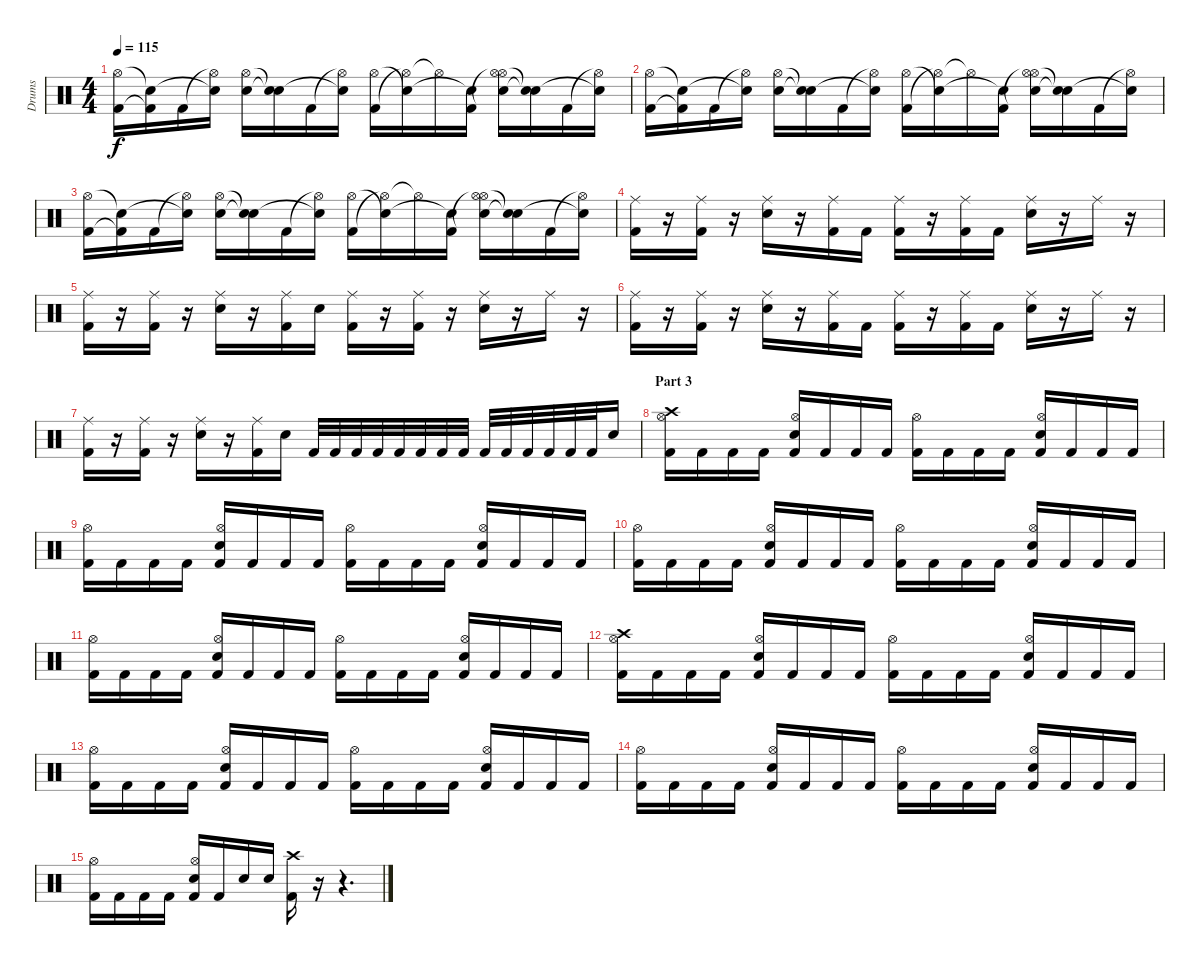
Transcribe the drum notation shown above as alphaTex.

\track ("Drums" "Drums") {instrument percussion}
\staff {score}
\articulation defaults
\ts (4 4)
\tempo 115
\clef neutral
\ks c
("Kick (hit) 2" "Hi-Hat (open)").16{dy f} ("Kick (hit) 2"{t} "Snare (hit)"{t}).16 "Kick (hit) 2".16 ("Hi-Hat (open)"{t} "Snare (hit)"{t}).16 ("Electric Snare (hit)" "Hi-Hat (open)").16 ("Snare (hit)"{t} "Snare (hit)"{t}).16 "Kick (hit) 2".16 ("Hi-Hat (open)"{t} "Snare (hit)"{t}).16 ("Kick (hit) 2" "Hi-Hat (open)").16 ("Hi-Hat (open)"{t} "Snare (hit)"{t}).16 "Hi-Hat (open)"{t}.16 ("Kick (hit) 2" "Snare (hit)"{t}).16 ("Hi-Hat (open)"{t} "Electric Snare (hit)" "Hi-Hat (open)").16 ("Electric Snare (hit)"{t} "Snare (hit)"{t}).16 "Kick (hit) 2".16 ("Hi-Hat (open)"{t} "Snare (hit)"{t}).16 |
("Kick (hit) 2" "Hi-Hat (open)").16 ("Kick (hit) 2"{t} "Snare (hit)"{t}).16 "Kick (hit) 2".16 ("Hi-Hat (open)"{t} "Snare (hit)"{t}).16 ("Electric Snare (hit)" "Hi-Hat (open)").16 ("Snare (hit)"{t} "Snare (hit)"{t}).16 "Kick (hit) 2".16 ("Hi-Hat (open)"{t} "Snare (hit)"{t}).16 ("Kick (hit) 2" "Hi-Hat (open)").16 ("Hi-Hat (open)"{t} "Snare (hit)"{t}).16 "Hi-Hat (open)"{t}.16 ("Kick (hit) 2" "Snare (hit)"{t}).16 ("Hi-Hat (open)"{t} "Electric Snare (hit)" "Hi-Hat (open)").16 ("Electric Snare (hit)"{t} "Snare (hit)"{t}).16 "Kick (hit) 2".16 ("Hi-Hat (open)"{t} "Snare (hit)"{t}).16 |
("Kick (hit) 2" "Hi-Hat (open)").16 ("Kick (hit) 2"{t} "Snare (hit)"{t}).16 "Kick (hit) 2".16 ("Hi-Hat (open)"{t} "Snare (hit)"{t}).16 ("Electric Snare (hit)" "Hi-Hat (open)").16 ("Snare (hit)"{t} "Snare (hit)"{t}).16 "Kick (hit) 2".16 ("Hi-Hat (open)"{t} "Snare (hit)"{t}).16 ("Kick (hit) 2" "Hi-Hat (open)").16 ("Hi-Hat (open)"{t} "Snare (hit)"{t}).16 "Hi-Hat (open)"{t}.16 ("Kick (hit) 2" "Snare (hit)"{t}).16 ("Hi-Hat (open)"{t} "Electric Snare (hit)" "Hi-Hat (open)").16 ("Electric Snare (hit)"{t} "Snare (hit)"{t}).16 "Kick (hit) 2".16 ("Hi-Hat (open)"{t} "Snare (hit)"{t}).16 |
("Kick (hit) 2" "Ride (middle)").16 r.16 ("Kick (hit) 2" "Ride (middle)").16 r.16 ("Electric Snare (hit)" "Ride (middle)").16 r.16 ("Kick (hit) 2" "Ride (middle)").16 "Kick (hit) 2".16 ("Kick (hit) 2" "Ride (middle)").16 r.16 ("Kick (hit) 2" "Ride (middle)").16 "Kick (hit) 2".16 ("Electric Snare (hit)" "Ride (middle)").16 r.16 "Ride (middle)".16 r.16 |
("Kick (hit) 2" "Ride (middle)").16 r.16 ("Kick (hit) 2" "Ride (middle)").16 r.16 ("Electric Snare (hit)" "Ride (middle)").16 r.16 ("Kick (hit) 2" "Ride (middle)").16 "Electric Snare (hit)".16 ("Kick (hit) 2" "Ride (middle)").16 r.16 ("Kick (hit) 2" "Ride (middle)").16 r.16 ("Electric Snare (hit)" "Ride (middle)").16 r.16 "Ride (middle)".16 r.16 |
("Kick (hit) 2" "Ride (middle)").16 r.16 ("Kick (hit) 2" "Ride (middle)").16 r.16 ("Electric Snare (hit)" "Ride (middle)").16 r.16 ("Kick (hit) 2" "Ride (middle)").16 "Kick (hit) 2".16 ("Kick (hit) 2" "Ride (middle)").16 r.16 ("Kick (hit) 2" "Ride (middle)").16 "Kick (hit) 2".16 ("Electric Snare (hit)" "Ride (middle)").16 r.16 "Ride (middle)".16 r.16 |
("Kick (hit) 2" "Ride (middle)").16 r.16 ("Kick (hit) 2" "Ride (middle)").16 r.16 ("Electric Snare (hit)" "Ride (middle)").16 r.16 ("Kick (hit) 2" "Ride (middle)").16 "Electric Snare (hit)".16 "Kick (hit) 2".32 "Kick (hit) 2".32 "Kick (hit) 2".32 "Kick (hit) 2".32 "Kick (hit) 2".32 "Kick (hit) 2".32 "Kick (hit) 2".32 "Kick (hit) 2".32 "Kick (hit) 2".32 "Kick (hit) 2".32 "Kick (hit) 2".32 "Kick (hit) 2".32 "Kick (hit) 2".32 "Kick (hit) 2".32 "Electric Snare (hit)".16 |
\section ("" "Part 3")
("Kick (hit) 2" "Crash high (hit)" "Hi-Hat (open)").16 "Kick (hit) 2".16 "Kick (hit) 2".16 "Kick (hit) 2".16 ("Kick (hit) 2" "Electric Snare (hit)" "Hi-Hat (open)").16 "Kick (hit) 2".16 "Kick (hit) 2".16 "Kick (hit) 2".16 ("Kick (hit) 2" "Hi-Hat (open)").16 "Kick (hit) 2".16 "Kick (hit) 2".16 "Kick (hit) 2".16 ("Kick (hit) 2" "Electric Snare (hit)" "Hi-Hat (open)").16 "Kick (hit) 2".16 "Kick (hit) 2".16 "Kick (hit) 2".16 |
("Kick (hit) 2" "Hi-Hat (open)").16 "Kick (hit) 2".16 "Kick (hit) 2".16 "Kick (hit) 2".16 ("Kick (hit) 2" "Electric Snare (hit)" "Hi-Hat (open)").16 "Kick (hit) 2".16 "Kick (hit) 2".16 "Kick (hit) 2".16 ("Kick (hit) 2" "Hi-Hat (open)").16 "Kick (hit) 2".16 "Kick (hit) 2".16 "Kick (hit) 2".16 ("Kick (hit) 2" "Electric Snare (hit)" "Hi-Hat (open)").16 "Kick (hit) 2".16 "Kick (hit) 2".16 "Kick (hit) 2".16 |
("Kick (hit) 2" "Hi-Hat (open)").16 "Kick (hit) 2".16 "Kick (hit) 2".16 "Kick (hit) 2".16 ("Kick (hit) 2" "Electric Snare (hit)" "Hi-Hat (open)").16 "Kick (hit) 2".16 "Kick (hit) 2".16 "Kick (hit) 2".16 ("Kick (hit) 2" "Hi-Hat (open)").16 "Kick (hit) 2".16 "Kick (hit) 2".16 "Kick (hit) 2".16 ("Kick (hit) 2" "Electric Snare (hit)" "Hi-Hat (open)").16 "Kick (hit) 2".16 "Kick (hit) 2".16 "Kick (hit) 2".16 |
("Kick (hit) 2" "Hi-Hat (open)").16 "Kick (hit) 2".16 "Kick (hit) 2".16 "Kick (hit) 2".16 ("Kick (hit) 2" "Electric Snare (hit)" "Hi-Hat (open)").16 "Kick (hit) 2".16 "Kick (hit) 2".16 "Kick (hit) 2".16 ("Kick (hit) 2" "Hi-Hat (open)").16 "Kick (hit) 2".16 "Kick (hit) 2".16 "Kick (hit) 2".16 ("Kick (hit) 2" "Electric Snare (hit)" "Hi-Hat (open)").16 "Kick (hit) 2".16 "Kick (hit) 2".16 "Kick (hit) 2".16 |
("Kick (hit) 2" "Crash high (hit)" "Hi-Hat (open)").16 "Kick (hit) 2".16 "Kick (hit) 2".16 "Kick (hit) 2".16 ("Kick (hit) 2" "Electric Snare (hit)" "Hi-Hat (open)").16 "Kick (hit) 2".16 "Kick (hit) 2".16 "Kick (hit) 2".16 ("Kick (hit) 2" "Hi-Hat (open)").16 "Kick (hit) 2".16 "Kick (hit) 2".16 "Kick (hit) 2".16 ("Kick (hit) 2" "Electric Snare (hit)" "Hi-Hat (open)").16 "Kick (hit) 2".16 "Kick (hit) 2".16 "Kick (hit) 2".16 |
("Kick (hit) 2" "Hi-Hat (open)").16 "Kick (hit) 2".16 "Kick (hit) 2".16 "Kick (hit) 2".16 ("Kick (hit) 2" "Electric Snare (hit)" "Hi-Hat (open)").16 "Kick (hit) 2".16 "Kick (hit) 2".16 "Kick (hit) 2".16 ("Kick (hit) 2" "Hi-Hat (open)").16 "Kick (hit) 2".16 "Kick (hit) 2".16 "Kick (hit) 2".16 ("Kick (hit) 2" "Electric Snare (hit)" "Hi-Hat (open)").16 "Kick (hit) 2".16 "Kick (hit) 2".16 "Kick (hit) 2".16 |
("Kick (hit) 2" "Hi-Hat (open)").16 "Kick (hit) 2".16 "Kick (hit) 2".16 "Kick (hit) 2".16 ("Kick (hit) 2" "Electric Snare (hit)" "Hi-Hat (open)").16 "Kick (hit) 2".16 "Kick (hit) 2".16 "Kick (hit) 2".16 ("Kick (hit) 2" "Hi-Hat (open)").16 "Kick (hit) 2".16 "Kick (hit) 2".16 "Kick (hit) 2".16 ("Kick (hit) 2" "Electric Snare (hit)" "Hi-Hat (open)").16 "Kick (hit) 2".16 "Kick (hit) 2".16 "Kick (hit) 2".16 |
("Kick (hit) 2" "Hi-Hat (open)").16 "Kick (hit) 2".16 "Kick (hit) 2".16 "Kick (hit) 2".16 ("Kick (hit) 2" "Electric Snare (hit)" "Hi-Hat (open)").16 "Kick (hit) 2".16 "Electric Snare (hit)".16 "Electric Snare (hit)".16 ("Crash high (hit)" "Kick (hit) 2").16 r.16 r.4{d}
